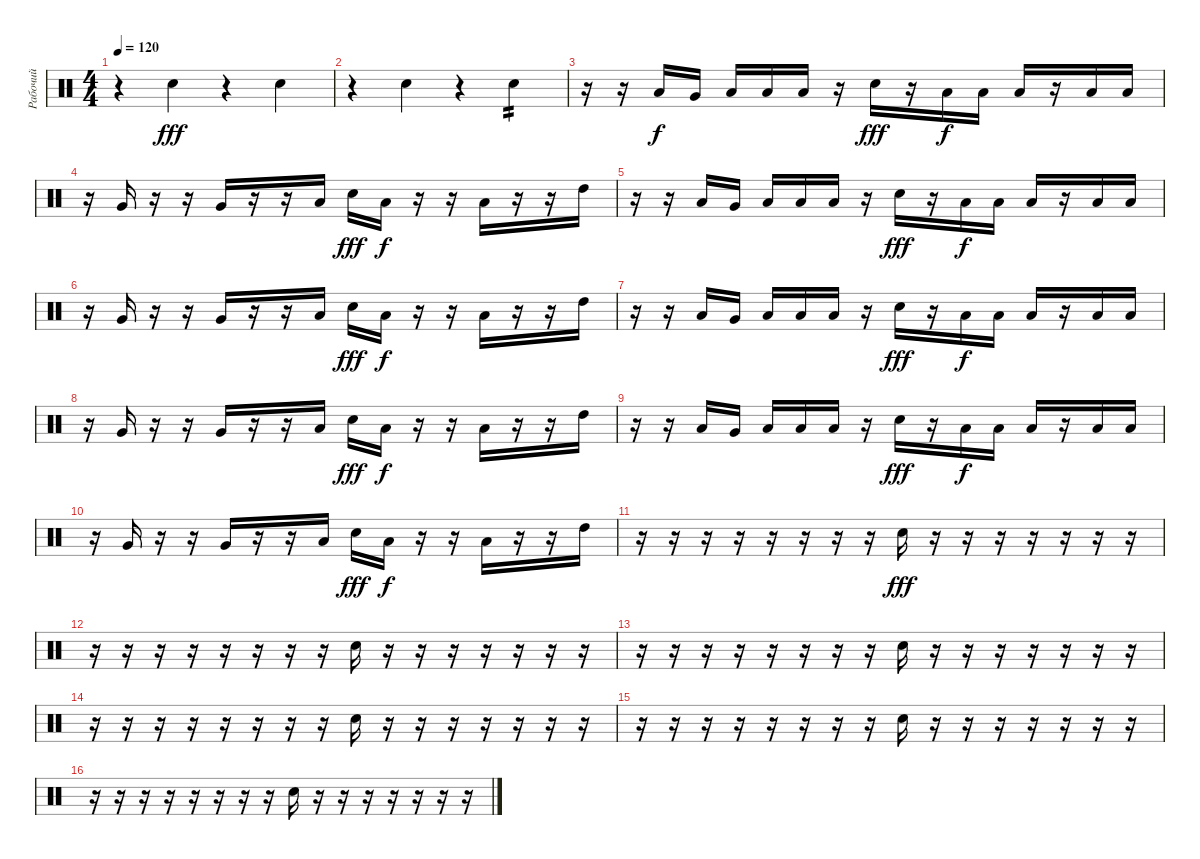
\track ("Рабочий" "Рабочий") {instrument percussion}
\staff {score}
\articulation defaults
\ts (4 4)
\tempo 120
\clef neutral
\ks c
r.4{dy fff} "Snare (hit) 2".4 r.4 "Snare (hit) 2".4 |
r.4 "Snare (hit) 2".4 r.4 "Snare (hit) 2".4{tp 2} |
r.16 r.16 "Low Tom (hit)".16{dy f} "Very Low Tom (hit)".16 "Low Floor Tom (hit)".16 "Low Floor Tom (hit)".16 "Low Floor Tom (hit)".16 r.16 "Snare (hit) 2".16{dy fff} r.16 "Low Floor Tom (hit)".16{dy f} "Low Floor Tom (hit)".16 "Low Floor Tom (hit)".16 r.16 "Low Floor Tom (hit)".16 "Low Floor Tom (hit)".16 |
r.16 "Very Low Tom (hit)".16 r.16 r.16 "Very Low Tom (hit)".16 r.16 r.16 "Low Floor Tom (hit)".16 "Snare (hit) 2".16{dy fff} "Low Floor Tom (hit)".16{dy f} r.16 r.16 "Low Floor Tom (hit)".16 r.16 r.16 "High Tom (hit)".16 |
r.16 r.16 "Low Tom (hit)".16 "Very Low Tom (hit)".16 "Low Floor Tom (hit)".16 "Low Floor Tom (hit)".16 "Low Floor Tom (hit)".16 r.16 "Snare (hit) 2".16{dy fff} r.16 "Low Floor Tom (hit)".16{dy f} "Low Floor Tom (hit)".16 "Low Floor Tom (hit)".16 r.16 "Low Floor Tom (hit)".16 "Low Floor Tom (hit)".16 |
r.16 "Very Low Tom (hit)".16 r.16 r.16 "Very Low Tom (hit)".16 r.16 r.16 "Low Floor Tom (hit)".16 "Snare (hit) 2".16{dy fff} "Low Floor Tom (hit)".16{dy f} r.16 r.16 "Low Floor Tom (hit)".16 r.16 r.16 "High Tom (hit)".16 |
r.16 r.16 "Low Tom (hit)".16 "Very Low Tom (hit)".16 "Low Floor Tom (hit)".16 "Low Floor Tom (hit)".16 "Low Floor Tom (hit)".16 r.16 "Snare (hit) 2".16{dy fff} r.16 "Low Floor Tom (hit)".16{dy f} "Low Floor Tom (hit)".16 "Low Floor Tom (hit)".16 r.16 "Low Floor Tom (hit)".16 "Low Floor Tom (hit)".16 |
r.16 "Very Low Tom (hit)".16 r.16 r.16 "Very Low Tom (hit)".16 r.16 r.16 "Low Floor Tom (hit)".16 "Snare (hit) 2".16{dy fff} "Low Floor Tom (hit)".16{dy f} r.16 r.16 "Low Floor Tom (hit)".16 r.16 r.16 "High Tom (hit)".16 |
r.16 r.16 "Low Tom (hit)".16 "Very Low Tom (hit)".16 "Low Floor Tom (hit)".16 "Low Floor Tom (hit)".16 "Low Floor Tom (hit)".16 r.16 "Snare (hit) 2".16{dy fff} r.16 "Low Floor Tom (hit)".16{dy f} "Low Floor Tom (hit)".16 "Low Floor Tom (hit)".16 r.16 "Low Floor Tom (hit)".16 "Low Floor Tom (hit)".16 |
r.16 "Very Low Tom (hit)".16 r.16 r.16 "Very Low Tom (hit)".16 r.16 r.16 "Low Floor Tom (hit)".16 "Snare (hit) 2".16{dy fff} "Low Floor Tom (hit)".16{dy f} r.16 r.16 "Low Floor Tom (hit)".16 r.16 r.16 "High Tom (hit)".16 |
r.16 r.16 r.16 r.16 r.16 r.16 r.16 r.16 "Snare (hit) 2".16{dy fff} r.16 r.16 r.16 r.16 r.16 r.16 r.16 |
r.16 r.16 r.16 r.16 r.16 r.16 r.16 r.16 "Snare (hit) 2".16 r.16 r.16 r.16 r.16 r.16 r.16 r.16 |
r.16 r.16 r.16 r.16 r.16 r.16 r.16 r.16 "Snare (hit) 2".16 r.16 r.16 r.16 r.16 r.16 r.16 r.16 |
r.16 r.16 r.16 r.16 r.16 r.16 r.16 r.16 "Snare (hit) 2".16 r.16 r.16 r.16 r.16 r.16 r.16 r.16 |
r.16 r.16 r.16 r.16 r.16 r.16 r.16 r.16 "Snare (hit) 2".16 r.16 r.16 r.16 r.16 r.16 r.16 r.16 |
r.16 r.16 r.16 r.16 r.16 r.16 r.16 r.16 "Snare (hit) 2".16 r.16 r.16 r.16 r.16 r.16 r.16 r.16
